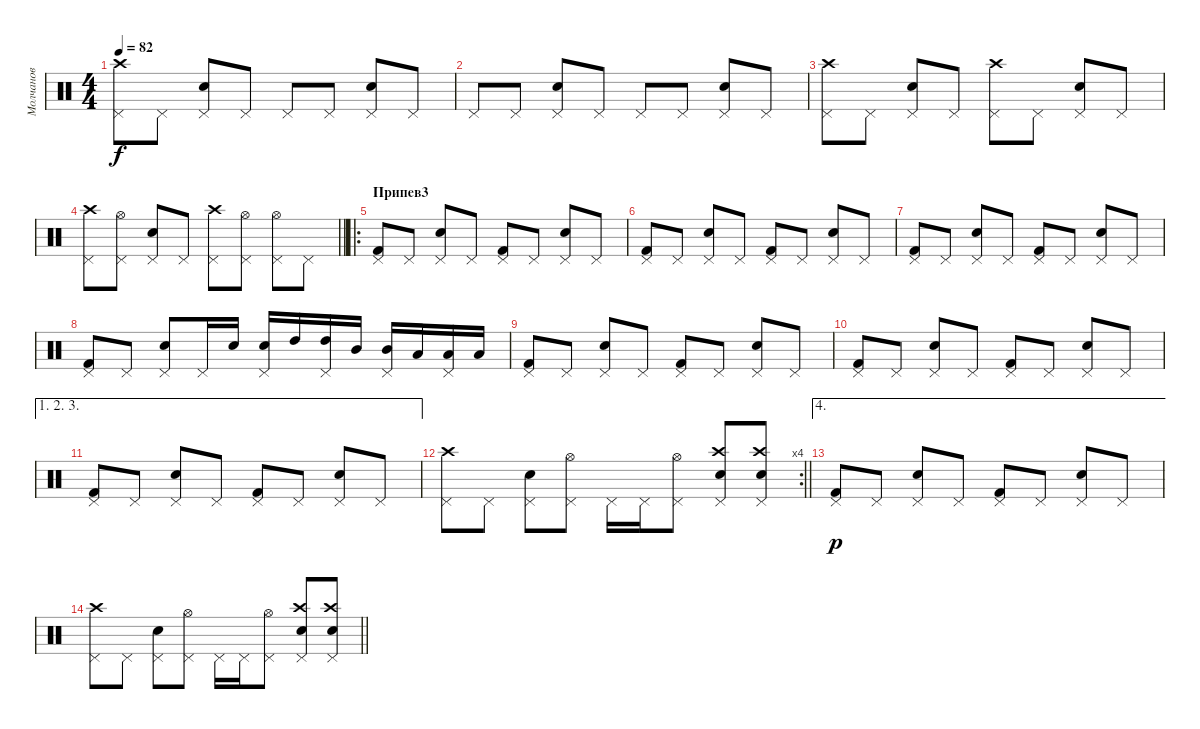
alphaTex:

\track ("Молчанов" "Молчанов") {instrument percussion}
\staff {score}
\articulation defaults
\ts (4 4)
\tempo 82
\clef neutral
\ks c
("Pedal Hi-Hat (hit)" "Crash high (hit)").8{dy f} "Pedal Hi-Hat (hit)".8 ("Pedal Hi-Hat (hit)" "Electric Snare (hit)").8 "Pedal Hi-Hat (hit)".8 "Pedal Hi-Hat (hit)".8 "Pedal Hi-Hat (hit)".8 ("Pedal Hi-Hat (hit)" "Electric Snare (hit)").8 "Pedal Hi-Hat (hit)".8 |
"Pedal Hi-Hat (hit)".8 "Pedal Hi-Hat (hit)".8 ("Pedal Hi-Hat (hit)" "Electric Snare (hit)").8 "Pedal Hi-Hat (hit)".8 "Pedal Hi-Hat (hit)".8 "Pedal Hi-Hat (hit)".8 ("Pedal Hi-Hat (hit)" "Electric Snare (hit)").8 "Pedal Hi-Hat (hit)".8 |
("Pedal Hi-Hat (hit)" "Crash high (hit)").8 "Pedal Hi-Hat (hit)".8 ("Pedal Hi-Hat (hit)" "Electric Snare (hit)").8 "Pedal Hi-Hat (hit)".8 ("Pedal Hi-Hat (hit)" "Crash high (hit)").8 "Pedal Hi-Hat (hit)".8 ("Pedal Hi-Hat (hit)" "Electric Snare (hit)").8 "Pedal Hi-Hat (hit)".8 |
\barLineRight lightlight
("Pedal Hi-Hat (hit)" "Crash high (hit)").8 ("Pedal Hi-Hat (hit)" "Hi-Hat (open)").8 ("Pedal Hi-Hat (hit)" "Electric Snare (hit)").8 "Pedal Hi-Hat (hit)".8 ("Pedal Hi-Hat (hit)" "Crash high (hit)").8 ("Pedal Hi-Hat (hit)" "Hi-Hat (open)").8 ("Pedal Hi-Hat (hit)" "Hi-Hat (open)").8 "Pedal Hi-Hat (hit)".8 |
\ro
\section ("" "Припев3")
("Pedal Hi-Hat (hit)" "Kick (hit) 2").8 "Pedal Hi-Hat (hit)".8 ("Pedal Hi-Hat (hit)" "Electric Snare (hit)").8 "Pedal Hi-Hat (hit)".8 ("Pedal Hi-Hat (hit)" "Kick (hit) 2").8 "Pedal Hi-Hat (hit)".8 ("Pedal Hi-Hat (hit)" "Electric Snare (hit)").8 "Pedal Hi-Hat (hit)".8 |
("Pedal Hi-Hat (hit)" "Kick (hit) 2").8 "Pedal Hi-Hat (hit)".8 ("Pedal Hi-Hat (hit)" "Electric Snare (hit)").8 "Pedal Hi-Hat (hit)".8 ("Pedal Hi-Hat (hit)" "Kick (hit) 2").8 "Pedal Hi-Hat (hit)".8 ("Pedal Hi-Hat (hit)" "Electric Snare (hit)").8 "Pedal Hi-Hat (hit)".8 |
("Pedal Hi-Hat (hit)" "Kick (hit) 2").8 "Pedal Hi-Hat (hit)".8 ("Pedal Hi-Hat (hit)" "Electric Snare (hit)").8 "Pedal Hi-Hat (hit)".8 ("Pedal Hi-Hat (hit)" "Kick (hit) 2").8 "Pedal Hi-Hat (hit)".8 ("Pedal Hi-Hat (hit)" "Electric Snare (hit)").8 "Pedal Hi-Hat (hit)".8 |
("Pedal Hi-Hat (hit)" "Kick (hit) 2").8 "Pedal Hi-Hat (hit)".8 ("Pedal Hi-Hat (hit)" "Electric Snare (hit)").8 "Pedal Hi-Hat (hit)".16 "Electric Snare (hit)".16 ("Pedal Hi-Hat (hit)" "Electric Snare (hit)").16 "High Tom (hit)".16 ("Pedal Hi-Hat (hit)" "High Tom (hit)").16 "Mid Tom (hit)".16 ("Pedal Hi-Hat (hit)" "Mid Tom (hit)").16 "Low Tom (hit)".16 ("Pedal Hi-Hat (hit)" "Low Tom (hit)").16 "Low Tom (hit)".16 |
("Pedal Hi-Hat (hit)" "Kick (hit) 2").8 "Pedal Hi-Hat (hit)".8 ("Pedal Hi-Hat (hit)" "Electric Snare (hit)").8 "Pedal Hi-Hat (hit)".8 ("Pedal Hi-Hat (hit)" "Kick (hit) 2").8 "Pedal Hi-Hat (hit)".8 ("Pedal Hi-Hat (hit)" "Electric Snare (hit)").8 "Pedal Hi-Hat (hit)".8 |
("Pedal Hi-Hat (hit)" "Kick (hit) 2").8 "Pedal Hi-Hat (hit)".8 ("Pedal Hi-Hat (hit)" "Electric Snare (hit)").8 "Pedal Hi-Hat (hit)".8 ("Pedal Hi-Hat (hit)" "Kick (hit) 2").8 "Pedal Hi-Hat (hit)".8 ("Pedal Hi-Hat (hit)" "Electric Snare (hit)").8 "Pedal Hi-Hat (hit)".8 |
\ae (1 2 3)
("Pedal Hi-Hat (hit)" "Kick (hit) 2").8 "Pedal Hi-Hat (hit)".8 ("Pedal Hi-Hat (hit)" "Electric Snare (hit)").8 "Pedal Hi-Hat (hit)".8 ("Pedal Hi-Hat (hit)" "Kick (hit) 2").8 "Pedal Hi-Hat (hit)".8 ("Pedal Hi-Hat (hit)" "Electric Snare (hit)").8 "Pedal Hi-Hat (hit)".8 |
\rc 4
\barLineRight lightlight
("Pedal Hi-Hat (hit)" "Crash high (hit)").8 "Pedal Hi-Hat (hit)".8 ("Pedal Hi-Hat (hit)" "Electric Snare (hit)").8 ("Pedal Hi-Hat (hit)" "Hi-Hat (open)").8 "Pedal Hi-Hat (hit)".16 "Pedal Hi-Hat (hit)".16 ("Pedal Hi-Hat (hit)" "Hi-Hat (open)").8 ("Pedal Hi-Hat (hit)" "Crash high (hit)" "Electric Snare (hit)").8 ("Pedal Hi-Hat (hit)" "Crash high (hit)" "Electric Snare (hit)").8 |
\ae 4
("Pedal Hi-Hat (hit)" "Kick (hit) 2").8{dy p} "Pedal Hi-Hat (hit)".8 ("Pedal Hi-Hat (hit)" "Electric Snare (hit)").8 "Pedal Hi-Hat (hit)".8 ("Pedal Hi-Hat (hit)" "Kick (hit) 2").8 "Pedal Hi-Hat (hit)".8 ("Pedal Hi-Hat (hit)" "Electric Snare (hit)").8 "Pedal Hi-Hat (hit)".8 |
\barLineRight lightlight
("Pedal Hi-Hat (hit)" "Crash high (hit)").8 "Pedal Hi-Hat (hit)".8 ("Pedal Hi-Hat (hit)" "Electric Snare (hit)").8 ("Pedal Hi-Hat (hit)" "Hi-Hat (open)").8 "Pedal Hi-Hat (hit)".16 "Pedal Hi-Hat (hit)".16 ("Pedal Hi-Hat (hit)" "Hi-Hat (open)").8 ("Pedal Hi-Hat (hit)" "Crash high (hit)" "Electric Snare (hit)").8 ("Pedal Hi-Hat (hit)" "Crash high (hit)" "Electric Snare (hit)").8
